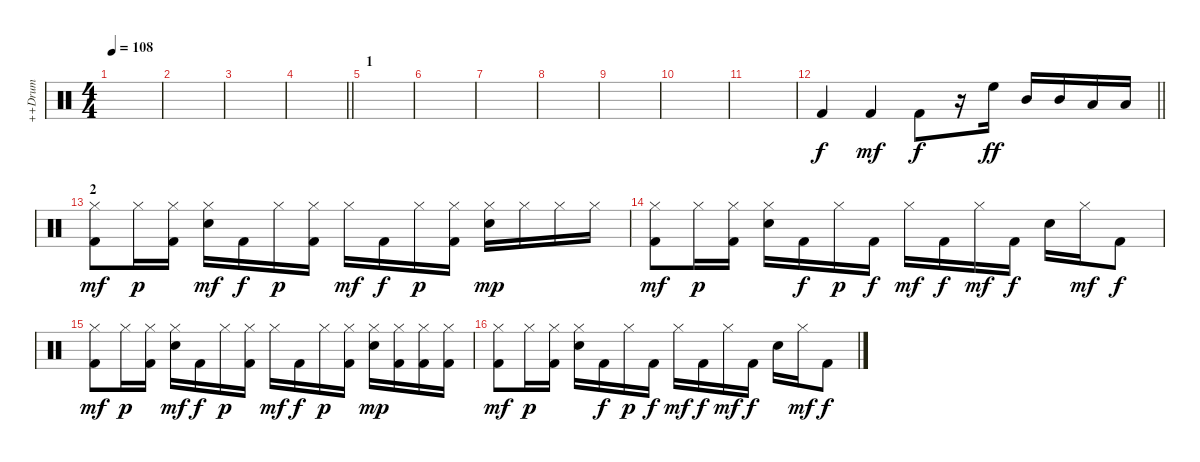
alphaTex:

\track ("++Drum" "++Drum") {instrument percussion}
\staff {score}
\articulation defaults
\ts (4 4)
\tempo 108
\clef neutral
\ks c
|
|
|
\barLineRight lightlight
|
\section ("" "1")
|
|
|
|
|
|
|
\barLineRight lightlight "Kick (hit) 2".4 "Kick (hit) 2".4{dy mf} "Kick (hit) 2".8{dy f}
r.16 "High Floor Tom (hit)".16{dy ff} "Mid Tom (hit)".16 "Mid Tom (hit)".16 "Low Tom (hit)".16 "Low Tom (hit)".16 |
\section ("" "2")
("Hi-Hat (closed)" "Kick (hit) 2").8{dy mf} "Hi-Hat (closed)".16{dy p} ("Hi-Hat (closed)" "Kick (hit) 2").16 ("Hi-Hat (closed)" "Electric Snare (hit)").16{dy mf} "Kick (hit) 2".16{dy f} "Hi-Hat (closed)".16{dy p} ("Hi-Hat (closed)" "Kick (hit) 2").16 "Hi-Hat (closed)".16{dy mf} "Kick (hit) 2".16{dy f} "Hi-Hat (closed)".16{dy p} ("Hi-Hat (closed)" "Kick (hit) 2").16 ("Hi-Hat (closed)" "Electric Snare (hit)").16{dy mp} "Hi-Hat (closed)".16 "Hi-Hat (closed)".16 "Hi-Hat (closed)".16 |
("Hi-Hat (closed)" "Kick (hit) 2").8{dy mf} "Hi-Hat (closed)".16{dy p} ("Hi-Hat (closed)" "Kick (hit) 2").16 ("Hi-Hat (closed)" "Electric Snare (hit)").16 "Kick (hit) 2".16{dy f} "Hi-Hat (closed)".16{dy p} "Kick (hit) 2".16{dy f} "Hi-Hat (closed)".16{dy mf} "Kick (hit) 2".16{dy f} "Hi-Hat (closed)".16{dy mf} "Kick (hit) 2".16{dy f} "Electric Snare (hit)".16 "Hi-Hat (closed)".16{dy mf} "Kick (hit) 2".8{dy f} |
("Hi-Hat (closed)" "Kick (hit) 2").8{dy mf} "Hi-Hat (closed)".16{dy p} ("Hi-Hat (closed)" "Kick (hit) 2").16 ("Hi-Hat (closed)" "Electric Snare (hit)").16{dy mf} "Kick (hit) 2".16{dy f} "Hi-Hat (closed)".16{dy p} ("Hi-Hat (closed)" "Kick (hit) 2").16 "Hi-Hat (closed)".16{dy mf} "Kick (hit) 2".16{dy f} "Hi-Hat (closed)".16{dy p} ("Hi-Hat (closed)" "Kick (hit) 2").16 ("Hi-Hat (closed)" "Electric Snare (hit)").16{dy mp} ("Hi-Hat (closed)" "Kick (hit) 2").16 ("Hi-Hat (closed)" "Kick (hit) 2").16 ("Hi-Hat (closed)" "Kick (hit) 2").16 |
("Hi-Hat (closed)" "Kick (hit) 2").8{dy mf} "Hi-Hat (closed)".16{dy p} ("Hi-Hat (closed)" "Kick (hit) 2").16 ("Hi-Hat (closed)" "Electric Snare (hit)").16 "Kick (hit) 2".16{dy f} "Hi-Hat (closed)".16{dy p} "Kick (hit) 2".16{dy f} "Hi-Hat (closed)".16{dy mf} "Kick (hit) 2".16{dy f} "Hi-Hat (closed)".16{dy mf} "Kick (hit) 2".16{dy f} "Electric Snare (hit)".16 "Hi-Hat (closed)".16{dy mf} "Kick (hit) 2".8{dy f}
